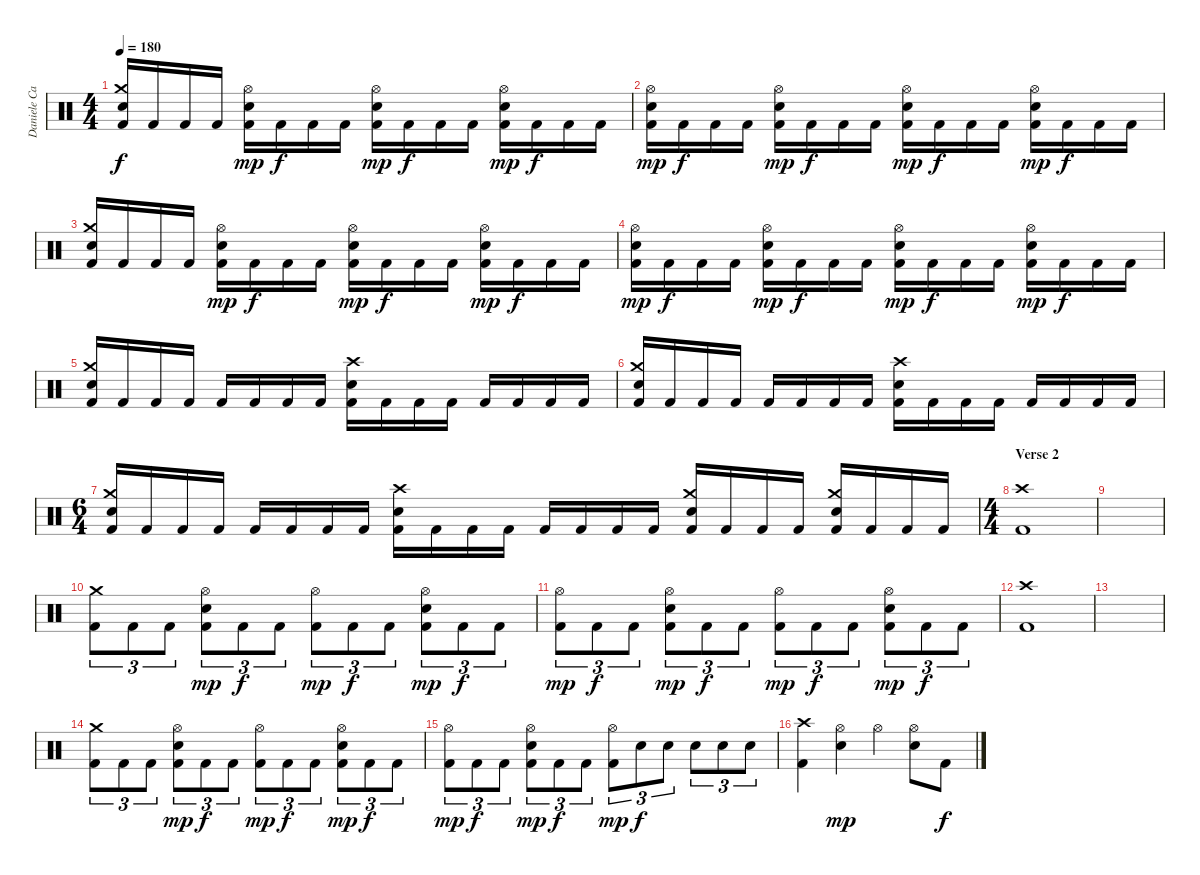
\track ("Daniele Carbonera" "Daniele Ca") {instrument percussion}
\staff {score}
\articulation defaults
\ts (4 4)
\tempo 180
\clef neutral
\ks c
("Kick (hit) 2" "Crash medium (hit)" "Snare (hit) 2").16{dy f} "Kick (hit) 2".16 "Kick (hit) 2".16 "Kick (hit) 2".16 ("Kick (hit) 2" "Hi-Hat (open)" "Snare (hit) 2").16{dy mp} "Kick (hit) 2".16{dy f} "Kick (hit) 2".16 "Kick (hit) 2".16 ("Kick (hit) 2" "Hi-Hat (open)" "Snare (hit) 2").16{dy mp} "Kick (hit) 2".16{dy f} "Kick (hit) 2".16 "Kick (hit) 2".16 ("Kick (hit) 2" "Hi-Hat (open)" "Snare (hit) 2").16{dy mp} "Kick (hit) 2".16{dy f} "Kick (hit) 2".16 "Kick (hit) 2".16 |
("Kick (hit) 2" "Hi-Hat (open)" "Snare (hit) 2").16{dy mp} "Kick (hit) 2".16{dy f} "Kick (hit) 2".16 "Kick (hit) 2".16 ("Kick (hit) 2" "Hi-Hat (open)" "Snare (hit) 2").16{dy mp} "Kick (hit) 2".16{dy f} "Kick (hit) 2".16 "Kick (hit) 2".16 ("Kick (hit) 2" "Hi-Hat (open)" "Snare (hit) 2").16{dy mp} "Kick (hit) 2".16{dy f} "Kick (hit) 2".16 "Kick (hit) 2".16 ("Kick (hit) 2" "Hi-Hat (open)" "Snare (hit) 2").16{dy mp} "Kick (hit) 2".16{dy f} "Kick (hit) 2".16 "Kick (hit) 2".16 |
("Kick (hit) 2" "Crash medium (hit)" "Snare (hit) 2").16 "Kick (hit) 2".16 "Kick (hit) 2".16 "Kick (hit) 2".16 ("Kick (hit) 2" "Hi-Hat (open)" "Snare (hit) 2").16{dy mp} "Kick (hit) 2".16{dy f} "Kick (hit) 2".16 "Kick (hit) 2".16 ("Kick (hit) 2" "Hi-Hat (open)" "Snare (hit) 2").16{dy mp} "Kick (hit) 2".16{dy f} "Kick (hit) 2".16 "Kick (hit) 2".16 ("Kick (hit) 2" "Hi-Hat (open)" "Snare (hit) 2").16{dy mp} "Kick (hit) 2".16{dy f} "Kick (hit) 2".16 "Kick (hit) 2".16 |
("Kick (hit) 2" "Hi-Hat (open)" "Snare (hit) 2").16{dy mp} "Kick (hit) 2".16{dy f} "Kick (hit) 2".16 "Kick (hit) 2".16 ("Kick (hit) 2" "Hi-Hat (open)" "Snare (hit) 2").16{dy mp} "Kick (hit) 2".16{dy f} "Kick (hit) 2".16 "Kick (hit) 2".16 ("Kick (hit) 2" "Hi-Hat (open)" "Snare (hit) 2").16{dy mp} "Kick (hit) 2".16{dy f} "Kick (hit) 2".16 "Kick (hit) 2".16 ("Kick (hit) 2" "Hi-Hat (open)" "Snare (hit) 2").16{dy mp} "Kick (hit) 2".16{dy f} "Kick (hit) 2".16 "Kick (hit) 2".16 |
("Kick (hit) 2" "Crash medium (hit)" "Snare (hit) 2").16 "Kick (hit) 2".16 "Kick (hit) 2".16 "Kick (hit) 2".16 "Kick (hit) 2".16 "Kick (hit) 2".16 "Kick (hit) 2".16 "Kick (hit) 2".16 ("Kick (hit) 2" "Crash high (hit)" "Snare (hit) 2").16 "Kick (hit) 2".16 "Kick (hit) 2".16 "Kick (hit) 2".16 "Kick (hit) 2".16 "Kick (hit) 2".16 "Kick (hit) 2".16 "Kick (hit) 2".16 |
("Kick (hit) 2" "Crash medium (hit)" "Snare (hit) 2").16 "Kick (hit) 2".16 "Kick (hit) 2".16 "Kick (hit) 2".16 "Kick (hit) 2".16 "Kick (hit) 2".16 "Kick (hit) 2".16 "Kick (hit) 2".16 ("Kick (hit) 2" "Crash high (hit)" "Snare (hit) 2").16 "Kick (hit) 2".16 "Kick (hit) 2".16 "Kick (hit) 2".16 "Kick (hit) 2".16 "Kick (hit) 2".16 "Kick (hit) 2".16 "Kick (hit) 2".16 |
\ts (6 4)
("Kick (hit) 2" "Crash medium (hit)" "Snare (hit) 2").16 "Kick (hit) 2".16 "Kick (hit) 2".16 "Kick (hit) 2".16 "Kick (hit) 2".16 "Kick (hit) 2".16 "Kick (hit) 2".16 "Kick (hit) 2".16 ("Kick (hit) 2" "Crash high (hit)" "Snare (hit) 2").16 "Kick (hit) 2".16 "Kick (hit) 2".16 "Kick (hit) 2".16 "Kick (hit) 2".16 "Kick (hit) 2".16 "Kick (hit) 2".16 "Kick (hit) 2".16 ("Kick (hit) 2" "Crash medium (hit)" "Snare (hit) 2").16 "Kick (hit) 2".16 "Kick (hit) 2".16 "Kick (hit) 2".16 ("Kick (hit) 2" "Crash medium (hit)" "Snare (hit) 2").16 "Kick (hit) 2".16 "Kick (hit) 2".16 "Kick (hit) 2".16 |
\ts (4 4)
\section ("" "Verse 2")
("Kick (hit) 2" "Crash high (hit)").1 |
|
("Kick (hit) 2" "Crash medium (hit)").8{tu (3 2)} "Kick (hit) 2".8{tu (3 2)} "Kick (hit) 2".8{tu (3 2)} ("Kick (hit) 2" "Hi-Hat (open)" "Snare (hit) 2").8{tu (3 2) dy mp} "Kick (hit) 2".8{tu (3 2) dy f} "Kick (hit) 2".8{tu (3 2)} ("Kick (hit) 2" "Hi-Hat (open)").8{tu (3 2) dy mp} "Kick (hit) 2".8{tu (3 2) dy f} "Kick (hit) 2".8{tu (3 2)} ("Kick (hit) 2" "Hi-Hat (open)" "Snare (hit) 2").8{tu (3 2) dy mp} "Kick (hit) 2".8{tu (3 2) dy f} "Kick (hit) 2".8{tu (3 2)} |
("Kick (hit) 2" "Hi-Hat (open)").8{tu (3 2) dy mp} "Kick (hit) 2".8{tu (3 2) dy f} "Kick (hit) 2".8{tu (3 2)} ("Kick (hit) 2" "Hi-Hat (open)" "Snare (hit) 2").8{tu (3 2) dy mp} "Kick (hit) 2".8{tu (3 2) dy f} "Kick (hit) 2".8{tu (3 2)} ("Kick (hit) 2" "Hi-Hat (open)").8{tu (3 2) dy mp} "Kick (hit) 2".8{tu (3 2) dy f} "Kick (hit) 2".8{tu (3 2)} ("Kick (hit) 2" "Hi-Hat (open)" "Snare (hit) 2").8{tu (3 2) dy mp} "Kick (hit) 2".8{tu (3 2) dy f} "Kick (hit) 2".8{tu (3 2)} |
("Kick (hit) 2" "Crash high (hit)").1 |
|
("Kick (hit) 2" "Crash medium (hit)").8{tu (3 2)} "Kick (hit) 2".8{tu (3 2)} "Kick (hit) 2".8{tu (3 2)} ("Kick (hit) 2" "Hi-Hat (open)" "Snare (hit) 2").8{tu (3 2) dy mp} "Kick (hit) 2".8{tu (3 2) dy f} "Kick (hit) 2".8{tu (3 2)} ("Kick (hit) 2" "Hi-Hat (open)").8{tu (3 2) dy mp} "Kick (hit) 2".8{tu (3 2) dy f} "Kick (hit) 2".8{tu (3 2)} ("Kick (hit) 2" "Hi-Hat (open)" "Snare (hit) 2").8{tu (3 2) dy mp} "Kick (hit) 2".8{tu (3 2) dy f} "Kick (hit) 2".8{tu (3 2)} |
("Kick (hit) 2" "Hi-Hat (open)").8{tu (3 2) dy mp} "Kick (hit) 2".8{tu (3 2) dy f} "Kick (hit) 2".8{tu (3 2)} ("Kick (hit) 2" "Hi-Hat (open)" "Snare (hit) 2").8{tu (3 2) dy mp} "Kick (hit) 2".8{tu (3 2) dy f} "Kick (hit) 2".8{tu (3 2)} ("Kick (hit) 2" "Hi-Hat (open)").8{tu (3 2) dy mp} "Snare (hit) 2".8{tu (3 2) dy f} "Snare (hit) 2".8{tu (3 2)} "Snare (hit) 2".8{tu (3 2)} "Snare (hit) 2".8{tu (3 2)} "Snare (hit) 2".8{tu (3 2)} |
("Kick (hit) 2" "Crash high (hit)").4 ("Hi-Hat (open)" "Snare (hit) 2").4{dy mp} "Hi-Hat (open)".4 ("Hi-Hat (open)" "Snare (hit) 2").8 "Kick (hit) 2".8{dy f}
